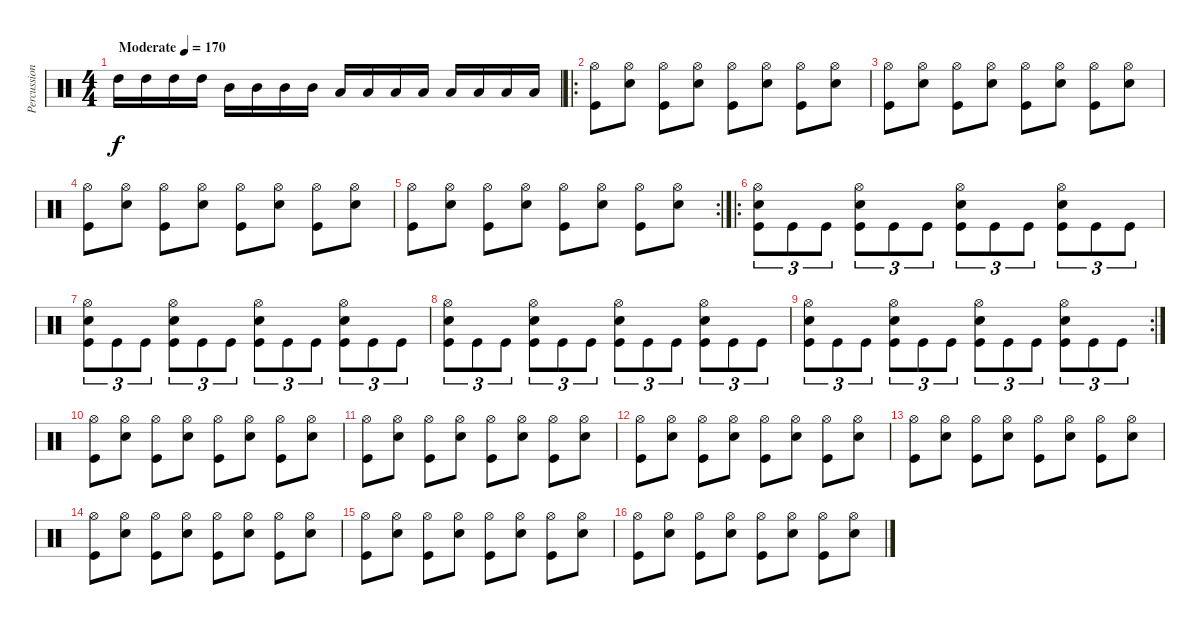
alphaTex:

\track ("Percussion" "Percussion") {instrument percussion}
\staff {score}
\articulation defaults
\ts (4 4)
\tempo (170 "Moderate")
\clef neutral
\ks c "High Tom (hit)".16{dy f} "High Tom (hit)".16 "High Tom (hit)".16 "High Tom (hit)".16 "Mid Tom (hit)".16 "Mid Tom (hit)".16 "Mid Tom (hit)".16 "Mid Tom (hit)".16 "Low Tom (hit)".16 "Low Tom (hit)".16 "Low Tom (hit)".16 "Low Tom (hit)".16 "Low Floor Tom (hit)".16 "Low Floor Tom (hit)".16 "Low Floor Tom (hit)".16 "Low Floor Tom (hit)".16
|
\ro
("Hi-Hat (open)" "Kick (hit)").8 ("Hi-Hat (open)" "Snare (hit) 2").8 ("Hi-Hat (open)" "Kick (hit)").8 ("Hi-Hat (open)" "Snare (hit) 2").8 ("Hi-Hat (open)" "Kick (hit)").8 ("Hi-Hat (open)" "Snare (hit) 2").8 ("Hi-Hat (open)" "Kick (hit)").8 ("Hi-Hat (open)" "Snare (hit) 2").8 |
("Hi-Hat (open)" "Kick (hit)").8 ("Hi-Hat (open)" "Snare (hit) 2").8 ("Hi-Hat (open)" "Kick (hit)").8 ("Hi-Hat (open)" "Snare (hit) 2").8 ("Hi-Hat (open)" "Kick (hit)").8 ("Hi-Hat (open)" "Snare (hit) 2").8 ("Hi-Hat (open)" "Kick (hit)").8 ("Hi-Hat (open)" "Snare (hit) 2").8 |
("Hi-Hat (open)" "Kick (hit)").8 ("Hi-Hat (open)" "Snare (hit) 2").8 ("Hi-Hat (open)" "Kick (hit)").8 ("Hi-Hat (open)" "Snare (hit) 2").8 ("Hi-Hat (open)" "Kick (hit)").8 ("Hi-Hat (open)" "Snare (hit) 2").8 ("Hi-Hat (open)" "Kick (hit)").8 ("Hi-Hat (open)" "Snare (hit) 2").8 |
\rc 2
("Hi-Hat (open)" "Kick (hit)").8 ("Hi-Hat (open)" "Snare (hit) 2").8 ("Hi-Hat (open)" "Kick (hit)").8 ("Hi-Hat (open)" "Snare (hit) 2").8 ("Hi-Hat (open)" "Kick (hit)").8 ("Hi-Hat (open)" "Snare (hit) 2").8 ("Hi-Hat (open)" "Kick (hit)").8 ("Hi-Hat (open)" "Snare (hit) 2").8 |
\ro
("Hi-Hat (open)" "Snare (hit) 2" "Kick (hit)").8{tu (3 2)} "Kick (hit)".8{tu (3 2)} "Kick (hit)".8{tu (3 2)} ("Hi-Hat (open)" "Snare (hit) 2" "Kick (hit)").8{tu (3 2)} "Kick (hit)".8{tu (3 2)} "Kick (hit)".8{tu (3 2)} ("Hi-Hat (open)" "Snare (hit) 2" "Kick (hit)").8{tu (3 2)} "Kick (hit)".8{tu (3 2)} "Kick (hit)".8{tu (3 2)} ("Hi-Hat (open)" "Snare (hit) 2" "Kick (hit)").8{tu (3 2)} "Kick (hit)".8{tu (3 2)} "Kick (hit)".8{tu (3 2)} |
("Hi-Hat (open)" "Snare (hit) 2" "Kick (hit)").8{tu (3 2)} "Kick (hit)".8{tu (3 2)} "Kick (hit)".8{tu (3 2)} ("Hi-Hat (open)" "Snare (hit) 2" "Kick (hit)").8{tu (3 2)} "Kick (hit)".8{tu (3 2)} "Kick (hit)".8{tu (3 2)} ("Hi-Hat (open)" "Snare (hit) 2" "Kick (hit)").8{tu (3 2)} "Kick (hit)".8{tu (3 2)} "Kick (hit)".8{tu (3 2)} ("Hi-Hat (open)" "Snare (hit) 2" "Kick (hit)").8{tu (3 2)} "Kick (hit)".8{tu (3 2)} "Kick (hit)".8{tu (3 2)} |
("Hi-Hat (open)" "Snare (hit) 2" "Kick (hit)").8{tu (3 2)} "Kick (hit)".8{tu (3 2)} "Kick (hit)".8{tu (3 2)} ("Hi-Hat (open)" "Snare (hit) 2" "Kick (hit)").8{tu (3 2)} "Kick (hit)".8{tu (3 2)} "Kick (hit)".8{tu (3 2)} ("Hi-Hat (open)" "Snare (hit) 2" "Kick (hit)").8{tu (3 2)} "Kick (hit)".8{tu (3 2)} "Kick (hit)".8{tu (3 2)} ("Hi-Hat (open)" "Snare (hit) 2" "Kick (hit)").8{tu (3 2)} "Kick (hit)".8{tu (3 2)} "Kick (hit)".8{tu (3 2)} |
\rc 2
("Hi-Hat (open)" "Snare (hit) 2" "Kick (hit)").8{tu (3 2)} "Kick (hit)".8{tu (3 2)} "Kick (hit)".8{tu (3 2)} ("Hi-Hat (open)" "Snare (hit) 2" "Kick (hit)").8{tu (3 2)} "Kick (hit)".8{tu (3 2)} "Kick (hit)".8{tu (3 2)} ("Hi-Hat (open)" "Snare (hit) 2" "Kick (hit)").8{tu (3 2)} "Kick (hit)".8{tu (3 2)} "Kick (hit)".8{tu (3 2)} ("Hi-Hat (open)" "Snare (hit) 2" "Kick (hit)").8{tu (3 2)} "Kick (hit)".8{tu (3 2)} "Kick (hit)".8{tu (3 2)} |
("Hi-Hat (open)" "Kick (hit)").8 ("Hi-Hat (open)" "Snare (hit) 2").8 ("Hi-Hat (open)" "Kick (hit)").8 ("Hi-Hat (open)" "Snare (hit) 2").8 ("Hi-Hat (open)" "Kick (hit)").8 ("Hi-Hat (open)" "Snare (hit) 2").8 ("Hi-Hat (open)" "Kick (hit)").8 ("Hi-Hat (open)" "Snare (hit) 2").8 |
("Hi-Hat (open)" "Kick (hit)").8 ("Hi-Hat (open)" "Snare (hit) 2").8 ("Hi-Hat (open)" "Kick (hit)").8 ("Hi-Hat (open)" "Snare (hit) 2").8 ("Hi-Hat (open)" "Kick (hit)").8 ("Hi-Hat (open)" "Snare (hit) 2").8 ("Hi-Hat (open)" "Kick (hit)").8 ("Hi-Hat (open)" "Snare (hit) 2").8 |
("Hi-Hat (open)" "Kick (hit)").8 ("Hi-Hat (open)" "Snare (hit) 2").8 ("Hi-Hat (open)" "Kick (hit)").8 ("Hi-Hat (open)" "Snare (hit) 2").8 ("Hi-Hat (open)" "Kick (hit)").8 ("Hi-Hat (open)" "Snare (hit) 2").8 ("Hi-Hat (open)" "Kick (hit)").8 ("Hi-Hat (open)" "Snare (hit) 2").8 |
("Hi-Hat (open)" "Kick (hit)").8 ("Hi-Hat (open)" "Snare (hit) 2").8 ("Hi-Hat (open)" "Kick (hit)").8 ("Hi-Hat (open)" "Snare (hit) 2").8 ("Hi-Hat (open)" "Kick (hit)").8 ("Hi-Hat (open)" "Snare (hit) 2").8 ("Hi-Hat (open)" "Kick (hit)").8 ("Hi-Hat (open)" "Snare (hit) 2").8 |
("Hi-Hat (open)" "Kick (hit)").8 ("Hi-Hat (open)" "Snare (hit) 2").8 ("Hi-Hat (open)" "Kick (hit)").8 ("Hi-Hat (open)" "Snare (hit) 2").8 ("Hi-Hat (open)" "Kick (hit)").8 ("Hi-Hat (open)" "Snare (hit) 2").8 ("Hi-Hat (open)" "Kick (hit)").8 ("Hi-Hat (open)" "Snare (hit) 2").8 |
("Hi-Hat (open)" "Kick (hit)").8 ("Hi-Hat (open)" "Snare (hit) 2").8 ("Hi-Hat (open)" "Kick (hit)").8 ("Hi-Hat (open)" "Snare (hit) 2").8 ("Hi-Hat (open)" "Kick (hit)").8 ("Hi-Hat (open)" "Snare (hit) 2").8 ("Hi-Hat (open)" "Kick (hit)").8 ("Hi-Hat (open)" "Snare (hit) 2").8 |
("Hi-Hat (open)" "Kick (hit)").8 ("Hi-Hat (open)" "Snare (hit) 2").8 ("Hi-Hat (open)" "Kick (hit)").8 ("Hi-Hat (open)" "Snare (hit) 2").8 ("Hi-Hat (open)" "Kick (hit)").8 ("Hi-Hat (open)" "Snare (hit) 2").8 ("Hi-Hat (open)" "Kick (hit)").8 ("Hi-Hat (open)" "Snare (hit) 2").8
